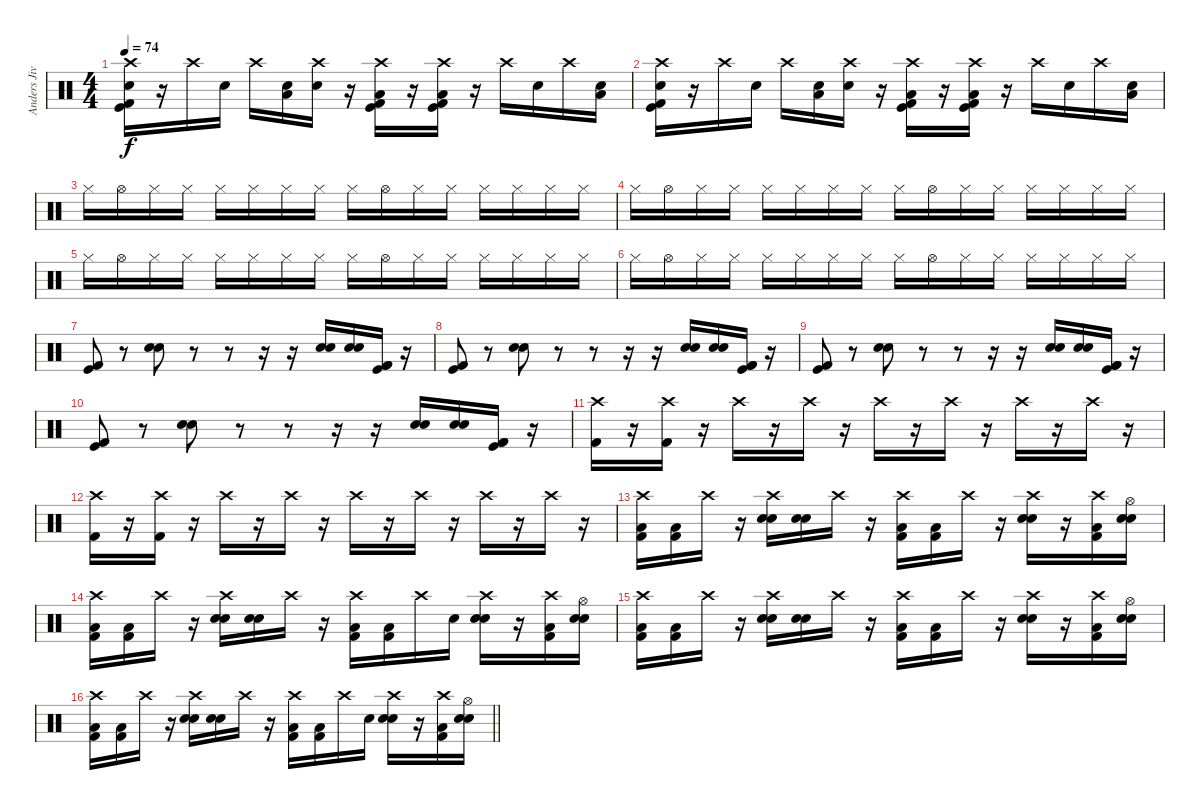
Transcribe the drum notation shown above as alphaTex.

\track ("Anders Jivarp" "Anders Jiv") {instrument percussion}
\staff {score}
\articulation defaults
\ts (4 4)
\tempo 74
\clef neutral
\ks c
("Crash high (hit)" "Snare (hit) 2" "Kick (hit) 2" "Kick (hit)").16{dy f} r.16 "Crash high (hit)".16 "Electric Snare (hit)".16 "Crash high (hit)".16 ("Low Tom (hit)" "Snare (hit) 2").16 ("Crash high (hit)" "Electric Snare (hit)").16 r.16 ("Crash high (hit)" "Kick (hit)" "Low Tom (hit)" "Kick (hit) 2").16 r.16 ("Crash high (hit)" "Kick (hit)" "Low Tom (hit)" "Kick (hit) 2").16 r.16 "Crash high (hit)".16 "Electric Snare (hit)".16 "Crash high (hit)".16 ("Low Tom (hit)" "Snare (hit) 2").16 |
("Crash high (hit)" "Snare (hit) 2" "Kick (hit) 2" "Kick (hit)").16 r.16 "Crash high (hit)".16 "Electric Snare (hit)".16 "Crash high (hit)".16 ("Low Tom (hit)" "Snare (hit) 2").16 ("Crash high (hit)" "Electric Snare (hit)").16 r.16 ("Crash high (hit)" "Kick (hit)" "Low Tom (hit)" "Kick (hit) 2").16 r.16 ("Crash high (hit)" "Kick (hit)" "Low Tom (hit)" "Kick (hit) 2").16 r.16 "Crash high (hit)".16 "Electric Snare (hit)".16 "Crash high (hit)".16 ("Low Tom (hit)" "Snare (hit) 2").16 |
"Hi-Hat (closed)".16 "Hi-Hat (open)".16 "Hi-Hat (closed)".16 "Hi-Hat (closed)".16 "Hi-Hat (closed)".16 "Hi-Hat (closed)".16 "Hi-Hat (closed)".16 "Hi-Hat (closed)".16 "Hi-Hat (closed)".16 "Hi-Hat (open)".16 "Hi-Hat (closed)".16 "Hi-Hat (closed)".16 "Hi-Hat (closed)".16 "Hi-Hat (closed)".16 "Hi-Hat (closed)".16 "Hi-Hat (closed)".16 |
"Hi-Hat (closed)".16 "Hi-Hat (open)".16 "Hi-Hat (closed)".16 "Hi-Hat (closed)".16 "Hi-Hat (closed)".16 "Hi-Hat (closed)".16 "Hi-Hat (closed)".16 "Hi-Hat (closed)".16 "Hi-Hat (closed)".16 "Hi-Hat (open)".16 "Hi-Hat (closed)".16 "Hi-Hat (closed)".16 "Hi-Hat (closed)".16 "Hi-Hat (closed)".16 "Hi-Hat (closed)".16 "Hi-Hat (closed)".16 |
"Hi-Hat (closed)".16 "Hi-Hat (open)".16 "Hi-Hat (closed)".16 "Hi-Hat (closed)".16 "Hi-Hat (closed)".16 "Hi-Hat (closed)".16 "Hi-Hat (closed)".16 "Hi-Hat (closed)".16 "Hi-Hat (closed)".16 "Hi-Hat (open)".16 "Hi-Hat (closed)".16 "Hi-Hat (closed)".16 "Hi-Hat (closed)".16 "Hi-Hat (closed)".16 "Hi-Hat (closed)".16 "Hi-Hat (closed)".16 |
"Hi-Hat (closed)".16 "Hi-Hat (open)".16 "Hi-Hat (closed)".16 "Hi-Hat (closed)".16 "Hi-Hat (closed)".16 "Hi-Hat (closed)".16 "Hi-Hat (closed)".16 "Hi-Hat (closed)".16 "Hi-Hat (closed)".16 "Hi-Hat (open)".16 "Hi-Hat (closed)".16 "Hi-Hat (closed)".16 "Hi-Hat (closed)".16 "Hi-Hat (closed)".16 "Hi-Hat (closed)".16 "Hi-Hat (closed)".16 |
("Kick (hit)" "Kick (hit) 2").8 r.8 ("Snare (hit) 2" "Electric Snare (hit)").8 r.8 r.8 r.16 r.16 ("Electric Snare (hit)" "Snare (hit) 2").16 ("Electric Snare (hit)" "Snare (hit) 2").16 ("Kick (hit)" "Kick (hit) 2" "Kick (hit) 2").16 r.16 |
("Kick (hit)" "Kick (hit) 2").8 r.8 ("Snare (hit) 2" "Electric Snare (hit)").8 r.8 r.8 r.16 r.16 ("Electric Snare (hit)" "Snare (hit) 2").16 ("Electric Snare (hit)" "Snare (hit) 2").16 ("Kick (hit)" "Kick (hit) 2" "Kick (hit) 2").16 r.16 |
("Kick (hit)" "Kick (hit) 2").8 r.8 ("Snare (hit) 2" "Electric Snare (hit)").8 r.8 r.8 r.16 r.16 ("Electric Snare (hit)" "Snare (hit) 2").16 ("Electric Snare (hit)" "Snare (hit) 2").16 ("Kick (hit)" "Kick (hit) 2" "Kick (hit) 2").16 r.16 |
("Kick (hit)" "Kick (hit) 2").8 r.8 ("Snare (hit) 2" "Electric Snare (hit)").8 r.8 r.8 r.16 r.16 ("Electric Snare (hit)" "Snare (hit) 2").16 ("Electric Snare (hit)" "Snare (hit) 2").16 ("Kick (hit)" "Kick (hit) 2" "Kick (hit) 2").16 r.16 |
("Crash high (hit)" "Kick (hit) 2").16 r.16 ("Crash high (hit)" "Kick (hit) 2").16 r.16 "Crash high (hit)".16 r.16 "Crash high (hit)".16 r.16 "Crash high (hit)".16 r.16 "Crash high (hit)".16 r.16 "Crash high (hit)".16 r.16 "Crash high (hit)".16 r.16 |
("Crash high (hit)" "Kick (hit) 2").16 r.16 ("Crash high (hit)" "Kick (hit) 2").16 r.16 "Crash high (hit)".16 r.16 "Crash high (hit)".16 r.16 "Crash high (hit)".16 r.16 "Crash high (hit)".16 r.16 "Crash high (hit)".16 r.16 "Crash high (hit)".16 r.16 |
("Crash high (hit)" "Low Tom (hit)" "Kick (hit) 2").16 ("Low Tom (hit)" "Kick (hit) 2").16 "Crash high (hit)".16 r.16 ("Crash high (hit)" "Snare (hit) 2" "Electric Snare (hit)").16 ("Snare (hit) 2" "Electric Snare (hit)").16 "Crash high (hit)".16 r.16 ("Crash high (hit)" "Low Tom (hit)" "Kick (hit) 2").16 ("Low Tom (hit)" "Kick (hit) 2").16 "Crash high (hit)".16 r.16 ("Crash high (hit)" "Snare (hit) 2" "Electric Snare (hit)").16 r.16 ("Crash high (hit)" "Low Tom (hit)" "Kick (hit) 2").16 ("Hi-Hat (open)" "Electric Snare (hit)" "Snare (hit) 2").16 |
("Crash high (hit)" "Low Tom (hit)" "Kick (hit) 2").16 ("Low Tom (hit)" "Kick (hit) 2").16 "Crash high (hit)".16 r.16 ("Crash high (hit)" "Snare (hit) 2" "Electric Snare (hit)").16 ("Snare (hit) 2" "Electric Snare (hit)").16 "Crash high (hit)".16 r.16 ("Crash high (hit)" "Low Tom (hit)" "Kick (hit) 2").16 ("Low Tom (hit)" "Kick (hit) 2").16 "Crash high (hit)".16 "Electric Snare (hit)".16 ("Crash high (hit)" "Snare (hit) 2" "Electric Snare (hit)").16 r.16 ("Crash high (hit)" "Low Tom (hit)" "Kick (hit) 2").16 ("Hi-Hat (open)" "Electric Snare (hit)" "Snare (hit) 2").16 |
("Crash high (hit)" "Low Tom (hit)" "Kick (hit) 2").16 ("Low Tom (hit)" "Kick (hit) 2").16 "Crash high (hit)".16 r.16 ("Crash high (hit)" "Snare (hit) 2" "Electric Snare (hit)").16 ("Snare (hit) 2" "Electric Snare (hit)").16 "Crash high (hit)".16 r.16 ("Crash high (hit)" "Low Tom (hit)" "Kick (hit) 2").16 ("Low Tom (hit)" "Kick (hit) 2").16 "Crash high (hit)".16 r.16 ("Crash high (hit)" "Snare (hit) 2" "Electric Snare (hit)").16 r.16 ("Crash high (hit)" "Low Tom (hit)" "Kick (hit) 2").16 ("Hi-Hat (open)" "Electric Snare (hit)" "Snare (hit) 2").16 |
\barLineRight lightlight
("Crash high (hit)" "Low Tom (hit)" "Kick (hit) 2").16 ("Low Tom (hit)" "Kick (hit) 2").16 "Crash high (hit)".16 r.16 ("Crash high (hit)" "Snare (hit) 2" "Electric Snare (hit)").16 ("Snare (hit) 2" "Electric Snare (hit)").16 "Crash high (hit)".16 r.16 ("Crash high (hit)" "Low Tom (hit)" "Kick (hit) 2").16 ("Low Tom (hit)" "Kick (hit) 2").16 "Crash high (hit)".16 "Electric Snare (hit)".16 ("Crash high (hit)" "Snare (hit) 2" "Electric Snare (hit)").16 r.16 ("Crash high (hit)" "Low Tom (hit)" "Kick (hit) 2").16 ("Hi-Hat (open)" "Electric Snare (hit)" "Snare (hit) 2").16
